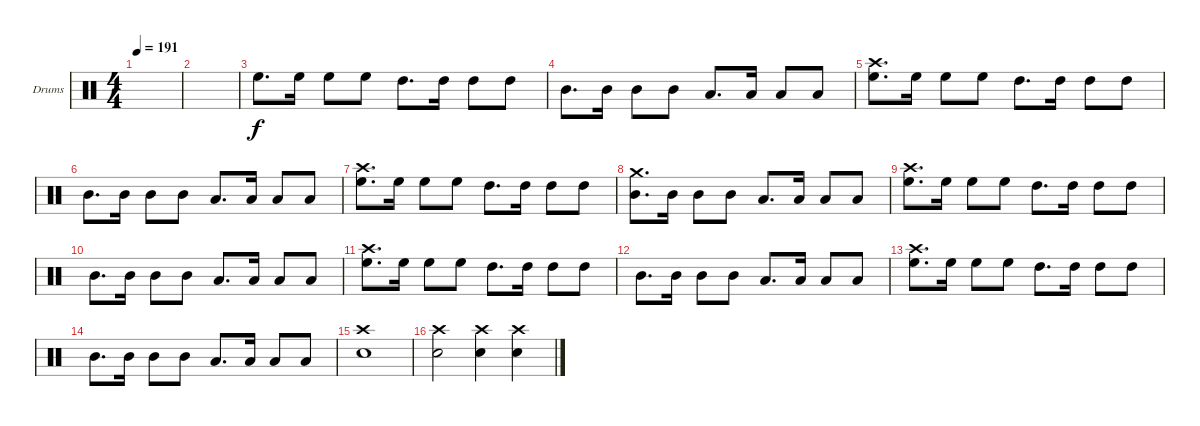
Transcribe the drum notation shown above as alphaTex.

\defaultSystemsLayout 4
\bracketExtendMode groupsimilarinstruments
\firstSystemTrackNameOrientation horizontal
\otherSystemsTrackNameOrientation horizontal
\track ("Drumkit" "Drums") {instrument percussion}
\staff {score}
\articulation defaults
\ts (4 4)
\tempo 191
\clef neutral
\scale
0.472222
\ks c
|
\scale
0.263889 |
\scale
0.263889 "High Floor Tom (hit)".8{d} "High Floor Tom (hit)".16 "High Floor Tom (hit)".8 "High Floor Tom (hit)".8 "High Tom (hit)".8{d} "High Tom (hit)".16 "High Tom (hit)".8 "High Tom (hit)".8 |
\scale
0.333333 "Mid Tom (hit)".8{d} "Mid Tom (hit)".16 "Mid Tom (hit)".8 "Mid Tom (hit)".8 "Low Tom (hit)".8{d} "Low Tom (hit)".16 "Low Tom (hit)".8 "Low Tom (hit)".8 |
\scale
0.333333 ("High Floor Tom (hit)" "Crash high (hit)").8{d} "High Floor Tom (hit)".16 "High Floor Tom (hit)".8 "High Floor Tom (hit)".8 "High Tom (hit)".8{d} "High Tom (hit)".16 "High Tom (hit)".8 "High Tom (hit)".8 |
\scale
0.333333 "Mid Tom (hit)".8{d} "Mid Tom (hit)".16 "Mid Tom (hit)".8 "Mid Tom (hit)".8 "Low Tom (hit)".8{d} "Low Tom (hit)".16 "Low Tom (hit)".8 "Low Tom (hit)".8 |
\scale
0.333333 ("High Floor Tom (hit)" "Crash high (hit)").8{d} "High Floor Tom (hit)".16 "High Floor Tom (hit)".8 "High Floor Tom (hit)".8 "High Tom (hit)".8{d} "High Tom (hit)".16 "High Tom (hit)".8 "High Tom (hit)".8 |
\scale
0.333333 ("Mid Tom (hit)" "Crash medium (hit)").8{d} "Mid Tom (hit)".16 "Mid Tom (hit)".8 "Mid Tom (hit)".8 "Low Tom (hit)".8{d} "Low Tom (hit)".16 "Low Tom (hit)".8 "Low Tom (hit)".8 |
\scale
0.333333 ("High Floor Tom (hit)" "Crash high (hit)").8{d} "High Floor Tom (hit)".16 "High Floor Tom (hit)".8 "High Floor Tom (hit)".8 "High Tom (hit)".8{d} "High Tom (hit)".16 "High Tom (hit)".8 "High Tom (hit)".8 |
\scale
0.333333 "Mid Tom (hit)".8{d} "Mid Tom (hit)".16 "Mid Tom (hit)".8 "Mid Tom (hit)".8 "Low Tom (hit)".8{d} "Low Tom (hit)".16 "Low Tom (hit)".8 "Low Tom (hit)".8 |
\scale
0.333333 ("High Floor Tom (hit)" "Crash high (hit)").8{d} "High Floor Tom (hit)".16 "High Floor Tom (hit)".8 "High Floor Tom (hit)".8 "High Tom (hit)".8{d} "High Tom (hit)".16 "High Tom (hit)".8 "High Tom (hit)".8 |
\scale
0.333333 "Mid Tom (hit)".8{d} "Mid Tom (hit)".16 "Mid Tom (hit)".8 "Mid Tom (hit)".8 "Low Tom (hit)".8{d} "Low Tom (hit)".16 "Low Tom (hit)".8 "Low Tom (hit)".8 |
\scale
0.333333 ("High Floor Tom (hit)" "Crash high (hit)").8{d} "High Floor Tom (hit)".16 "High Floor Tom (hit)".8 "High Floor Tom (hit)".8 "High Tom (hit)".8{d} "High Tom (hit)".16 "High Tom (hit)".8 "High Tom (hit)".8 |
\scale
0.333333 "Mid Tom (hit)".8{d} "Mid Tom (hit)".16 "Mid Tom (hit)".8 "Mid Tom (hit)".8 "Low Tom (hit)".8{d} "Low Tom (hit)".16 "Low Tom (hit)".8 "Low Tom (hit)".8 |
\scale
0.333333 ("Snare (hit) 2" "Crash high (hit)").1 |
\scale
0.333333 ("Snare (hit) 2" "Crash high (hit)").2 ("Snare (hit) 2" "Crash high (hit)").4 ("Snare (hit) 2" "Crash high (hit)").4
